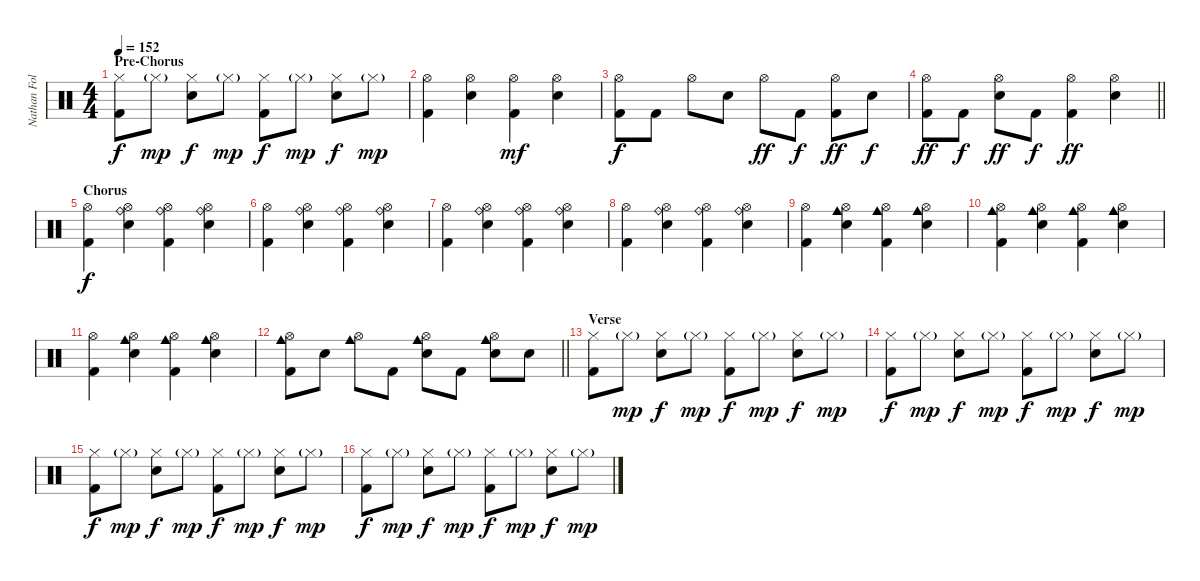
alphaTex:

\track ("Nathan Followill" "Nathan Fol") {instrument percussion}
\staff {score}
\articulation defaults
\ts (4 4)
\section ("" "Pre-Chorus")
\tempo 152
\clef neutral
\ks c
("Hi-Hat (closed)" "Kick (hit) 2").8{dy f} "Hi-Hat (closed)"{g}.8{dy mp} ("Hi-Hat (closed)" "Electric Snare (hit)").8{dy f} "Hi-Hat (closed)"{g}.8{dy mp} ("Hi-Hat (closed)" "Kick (hit) 2").8{dy f} "Hi-Hat (closed)"{g}.8{dy mp} ("Hi-Hat (closed)" "Electric Snare (hit)").8{dy f} "Hi-Hat (closed)"{g}.8{dy mp} |
("Hi-Hat (open)" "Kick (hit) 2").4 ("Hi-Hat (open)" "Electric Snare (hit)").4 ("Hi-Hat (open)" "Kick (hit) 2").4{dy mf} ("Hi-Hat (open)" "Electric Snare (hit)").4 |
("Hi-Hat (open)" "Kick (hit) 2").8{dy f} "Kick (hit) 2".8 "Hi-Hat (open)".8 "Electric Snare (hit)".8 "Hi-Hat (open)".8{dy ff} "Kick (hit) 2".8{dy f} ("Hi-Hat (open)" "Kick (hit) 2").8{dy ff} "Electric Snare (hit)".8{dy f} |
\barLineRight lightlight
("Hi-Hat (open)" "Kick (hit) 2").8{dy ff} "Kick (hit) 2".8{dy f} ("Hi-Hat (open)" "Electric Snare (hit)").8{dy ff} "Kick (hit) 2".8{dy f} ("Hi-Hat (open)" "Kick (hit) 2").4{dy ff} ("Hi-Hat (open)" "Electric Snare (hit)").4 |
\section ("" "Chorus")
("Hi-Hat (open)" "Kick (hit) 2").4{dy f} ("Hi-Hat (open)" "Ride (bell)" "Electric Snare (hit)").4 ("Hi-Hat (open)" "Ride (bell)" "Kick (hit) 2").4 ("Hi-Hat (open)" "Ride (bell)" "Electric Snare (hit)").4 |
("Hi-Hat (open)" "Kick (hit) 2").4 ("Hi-Hat (open)" "Ride (bell)" "Electric Snare (hit)").4 ("Hi-Hat (open)" "Ride (bell)" "Kick (hit) 2").4 ("Hi-Hat (open)" "Ride (bell)" "Electric Snare (hit)").4 |
("Hi-Hat (open)" "Kick (hit) 2").4 ("Hi-Hat (open)" "Ride (bell)" "Electric Snare (hit)").4 ("Hi-Hat (open)" "Ride (bell)" "Kick (hit) 2").4 ("Hi-Hat (open)" "Ride (bell)" "Electric Snare (hit)").4 |
("Hi-Hat (open)" "Kick (hit) 2").4 ("Hi-Hat (open)" "Ride (bell)" "Electric Snare (hit)").4 ("Hi-Hat (open)" "Ride (bell)" "Kick (hit) 2").4 ("Hi-Hat (open)" "Ride (bell)" "Electric Snare (hit)").4 |
("Hi-Hat (open)" "Kick (hit) 2").4 ("Hi-Hat (open)" "Cowbell medium (hit)" "Electric Snare (hit)").4 ("Hi-Hat (open)" "Cowbell medium (hit)" "Kick (hit) 2").4 ("Hi-Hat (open)" "Cowbell medium (hit)" "Electric Snare (hit)").4 |
("Hi-Hat (open)" "Cowbell medium (hit)" "Kick (hit) 2").4 ("Hi-Hat (open)" "Cowbell medium (hit)" "Electric Snare (hit)").4 ("Hi-Hat (open)" "Cowbell medium (hit)" "Kick (hit) 2").4 ("Hi-Hat (open)" "Cowbell medium (hit)" "Electric Snare (hit)").4 |
("Hi-Hat (open)" "Kick (hit) 2").4 ("Hi-Hat (open)" "Cowbell medium (hit)" "Electric Snare (hit)").4 ("Hi-Hat (open)" "Cowbell medium (hit)" "Kick (hit) 2").4 ("Hi-Hat (open)" "Cowbell medium (hit)" "Electric Snare (hit)").4 |
\barLineRight lightlight
("Hi-Hat (open)" "Cowbell medium (hit)" "Kick (hit) 2").8 "Electric Snare (hit)".8 ("Hi-Hat (open)" "Cowbell medium (hit)").8 "Kick (hit) 2".8 ("Hi-Hat (open)" "Cowbell medium (hit)" "Electric Snare (hit)").8 "Kick (hit) 2".8 ("Hi-Hat (open)" "Cowbell medium (hit)" "Electric Snare (hit)").8 "Electric Snare (hit)".8 |
\section ("" "Verse")
("Hi-Hat (closed)" "Kick (hit) 2").8 "Hi-Hat (closed)"{g}.8{dy mp} ("Hi-Hat (closed)" "Electric Snare (hit)").8{dy f} "Hi-Hat (closed)"{g}.8{dy mp} ("Hi-Hat (closed)" "Kick (hit) 2").8{dy f} "Hi-Hat (closed)"{g}.8{dy mp} ("Hi-Hat (closed)" "Electric Snare (hit)").8{dy f} "Hi-Hat (closed)"{g}.8{dy mp} |
("Hi-Hat (closed)" "Kick (hit) 2").8{dy f} "Hi-Hat (closed)"{g}.8{dy mp} ("Hi-Hat (closed)" "Electric Snare (hit)").8{dy f} "Hi-Hat (closed)"{g}.8{dy mp} ("Hi-Hat (closed)" "Kick (hit) 2").8{dy f} "Hi-Hat (closed)"{g}.8{dy mp} ("Hi-Hat (closed)" "Electric Snare (hit)").8{dy f} "Hi-Hat (closed)"{g}.8{dy mp} |
("Hi-Hat (closed)" "Kick (hit) 2").8{dy f} "Hi-Hat (closed)"{g}.8{dy mp} ("Hi-Hat (closed)" "Electric Snare (hit)").8{dy f} "Hi-Hat (closed)"{g}.8{dy mp} ("Hi-Hat (closed)" "Kick (hit) 2").8{dy f} "Hi-Hat (closed)"{g}.8{dy mp} ("Hi-Hat (closed)" "Electric Snare (hit)").8{dy f} "Hi-Hat (closed)"{g}.8{dy mp} |
("Hi-Hat (closed)" "Kick (hit) 2").8{dy f} "Hi-Hat (closed)"{g}.8{dy mp} ("Hi-Hat (closed)" "Electric Snare (hit)").8{dy f} "Hi-Hat (closed)"{g}.8{dy mp} ("Hi-Hat (closed)" "Kick (hit) 2").8{dy f} "Hi-Hat (closed)"{g}.8{dy mp} ("Hi-Hat (closed)" "Electric Snare (hit)").8{dy f} "Hi-Hat (closed)"{g}.8{dy mp}
